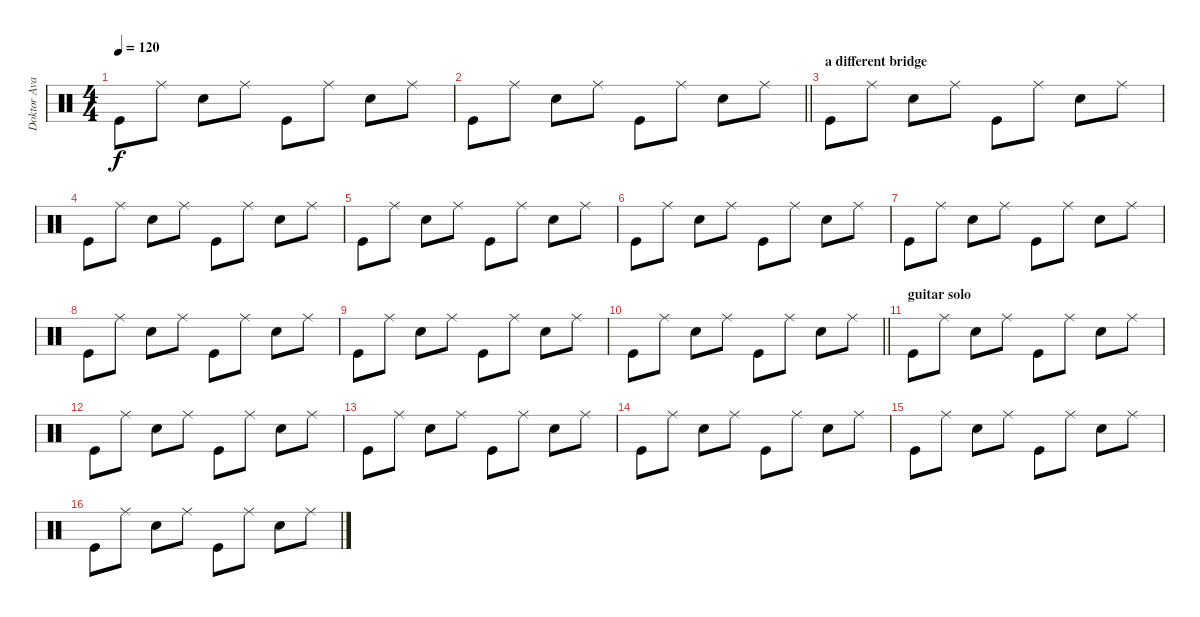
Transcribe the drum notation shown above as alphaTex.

\track ("Doktor Avalanche" "Doktor Ava") {instrument percussion}
\staff {score}
\articulation defaults
\ts (4 4)
\tempo 120
\clef neutral
\ks c "Kick (hit)".8{dy f} "Ride (middle)".8 "Snare (hit) 2".8 "Ride (middle)".8 "Kick (hit)".8 "Ride (middle)".8 "Snare (hit) 2".8 "Ride (middle)".8
|
\barLineRight lightlight "Kick (hit)".8 "Ride (middle)".8 "Snare (hit) 2".8 "Ride (middle)".8 "Kick (hit)".8 "Ride (middle)".8 "Snare (hit) 2".8 "Ride (middle)".8
|
\section ("" "a different bridge")
"Kick (hit)".8 "Ride (middle)".8 "Snare (hit) 2".8 "Ride (middle)".8 "Kick (hit)".8 "Ride (middle)".8 "Snare (hit) 2".8 "Ride (middle)".8 |
"Kick (hit)".8 "Ride (middle)".8 "Snare (hit) 2".8 "Ride (middle)".8 "Kick (hit)".8 "Ride (middle)".8 "Snare (hit) 2".8 "Ride (middle)".8 |
"Kick (hit)".8 "Ride (middle)".8 "Snare (hit) 2".8 "Ride (middle)".8 "Kick (hit)".8 "Ride (middle)".8 "Snare (hit) 2".8 "Ride (middle)".8 |
"Kick (hit)".8 "Ride (middle)".8 "Snare (hit) 2".8 "Ride (middle)".8 "Kick (hit)".8 "Ride (middle)".8 "Snare (hit) 2".8 "Ride (middle)".8 |
"Kick (hit)".8 "Ride (middle)".8 "Snare (hit) 2".8 "Ride (middle)".8 "Kick (hit)".8 "Ride (middle)".8 "Snare (hit) 2".8 "Ride (middle)".8 |
"Kick (hit)".8 "Ride (middle)".8 "Snare (hit) 2".8 "Ride (middle)".8 "Kick (hit)".8 "Ride (middle)".8 "Snare (hit) 2".8 "Ride (middle)".8 |
"Kick (hit)".8 "Ride (middle)".8 "Snare (hit) 2".8 "Ride (middle)".8 "Kick (hit)".8 "Ride (middle)".8 "Snare (hit) 2".8 "Ride (middle)".8 |
\barLineRight lightlight "Kick (hit)".8 "Ride (middle)".8 "Snare (hit) 2".8 "Ride (middle)".8 "Kick (hit)".8 "Ride (middle)".8 "Snare (hit) 2".8 "Ride (middle)".8
|
\section ("" "guitar solo")
"Kick (hit)".8 "Ride (middle)".8 "Snare (hit) 2".8 "Ride (middle)".8 "Kick (hit)".8 "Ride (middle)".8 "Snare (hit) 2".8 "Ride (middle)".8 |
"Kick (hit)".8 "Ride (middle)".8 "Snare (hit) 2".8 "Ride (middle)".8 "Kick (hit)".8 "Ride (middle)".8 "Snare (hit) 2".8 "Ride (middle)".8 |
"Kick (hit)".8 "Ride (middle)".8 "Snare (hit) 2".8 "Ride (middle)".8 "Kick (hit)".8 "Ride (middle)".8 "Snare (hit) 2".8 "Ride (middle)".8 |
"Kick (hit)".8 "Ride (middle)".8 "Snare (hit) 2".8 "Ride (middle)".8 "Kick (hit)".8 "Ride (middle)".8 "Snare (hit) 2".8 "Ride (middle)".8 |
"Kick (hit)".8 "Ride (middle)".8 "Snare (hit) 2".8 "Ride (middle)".8 "Kick (hit)".8 "Ride (middle)".8 "Snare (hit) 2".8 "Ride (middle)".8 |
"Kick (hit)".8 "Ride (middle)".8 "Snare (hit) 2".8 "Ride (middle)".8 "Kick (hit)".8 "Ride (middle)".8 "Snare (hit) 2".8 "Ride (middle)".8
